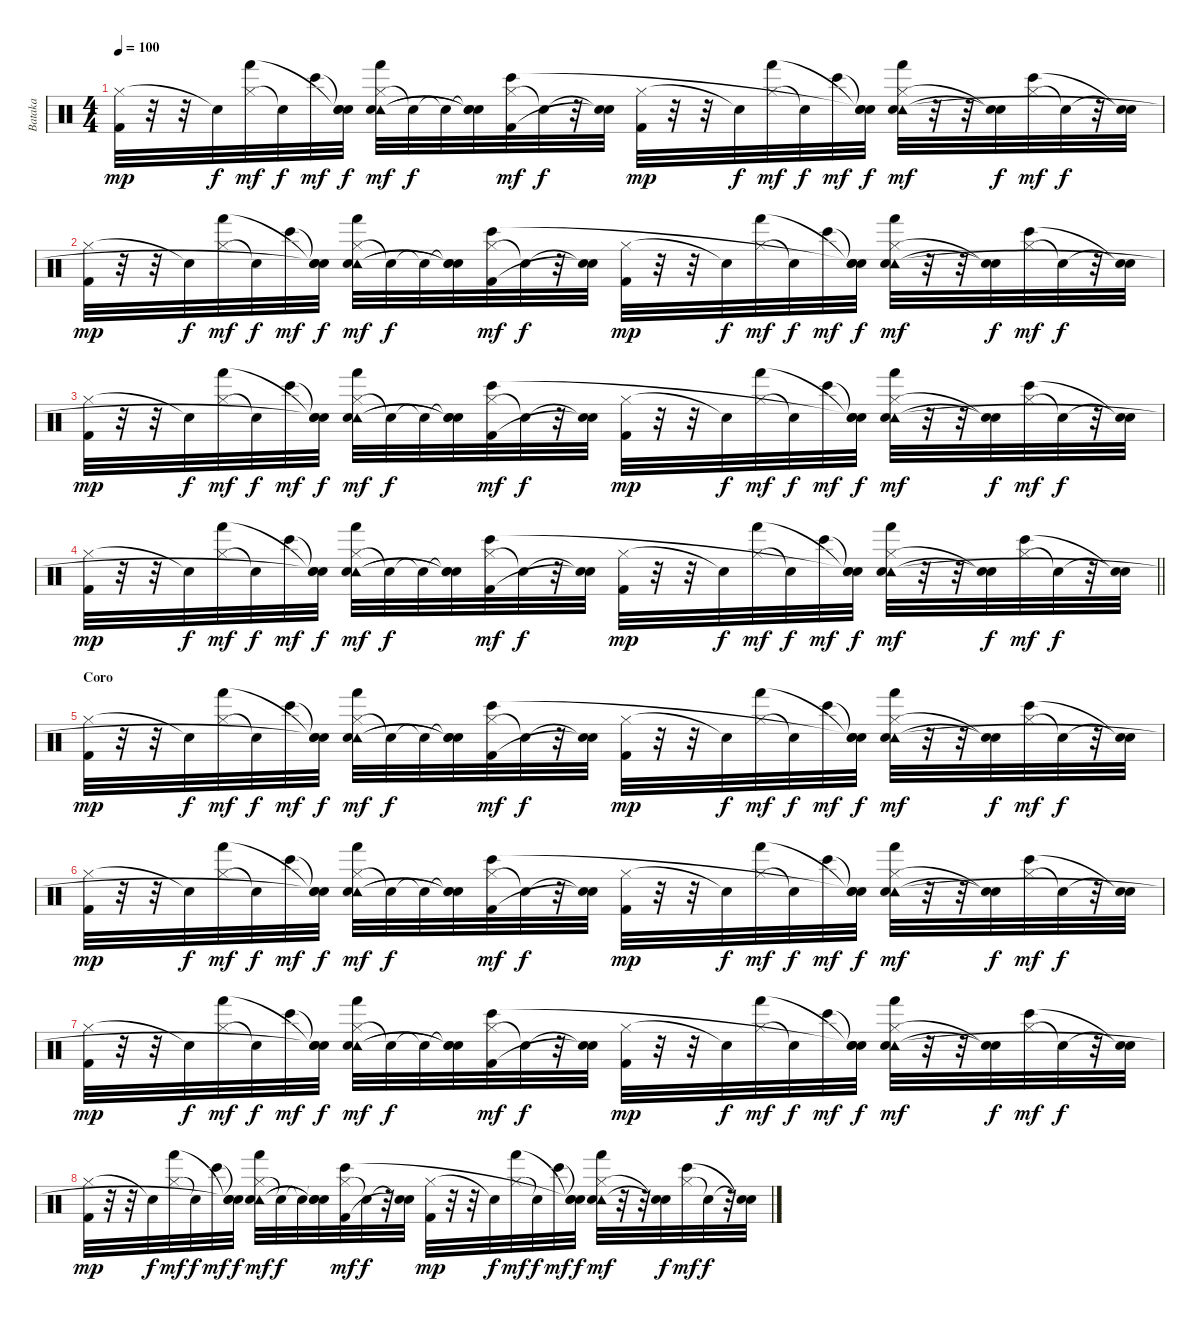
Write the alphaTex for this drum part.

\track ("Bataka" "Bataka") {instrument percussion}
\staff {score}
\articulation defaults
\ts (4 4)
\tempo 100
\clef neutral
\ks c
("Hi-Hat (closed)" "Kick (hit) 2").32{dy mp} r.32 r.32 "Snare (hit)"{t}.32{dy f} ("Hi-Hat (closed)" "Hand (hit)").32{dy mf} "Snare (hit)"{t}.32{dy f} "Bongo High (hit)".32{dy mf} ("Snare (hit)"{t} "Snare (hit)"{t} "Snare (hit)"{t}).32{dy f} ("Hi-Hat (closed)" "Tambourine (hit)" "Electric Snare (hit)" "Hand (hit)").32{dy mf} "Snare (hit)"{t}.32{dy f} "Snare (hit)"{t}.32 ("Snare (hit)"{t} "Snare (hit)"{t} "Snare (hit)"{t}).32 ("Hi-Hat (closed)" "Kick (hit) 2" "Bongo High (hit)").32{dy mf} "Snare (hit)"{t}.32{dy f} r.32 ("Snare (hit)"{t} "Snare (hit)"{t}).32 ("Hi-Hat (closed)" "Kick (hit) 2").32{dy mp} r.32 r.32 "Snare (hit)"{t}.32{dy f} ("Hi-Hat (closed)" "Hand (hit)").32{dy mf} "Snare (hit)"{t}.32{dy f} "Bongo High (hit)".32{dy mf} ("Snare (hit)"{t} "Snare (hit)"{t} "Snare (hit)"{t}).32{dy f} ("Hi-Hat (closed)" "Tambourine (hit)" "Electric Snare (hit)" "Hand (hit)").32{dy mf} r.32 r.32 ("Snare (hit)"{t} "Snare (hit)"{t}).32{dy f} ("Hi-Hat (closed)" "Bongo High (hit)").32{dy mf} "Snare (hit)"{t}.32{dy f} r.32 ("Snare (hit)"{t} "Snare (hit)"{t}).32 |
("Hi-Hat (closed)" "Kick (hit) 2").32{dy mp} r.32 r.32 "Snare (hit)"{t}.32{dy f} ("Hi-Hat (closed)" "Hand (hit)").32{dy mf} "Snare (hit)"{t}.32{dy f} "Bongo High (hit)".32{dy mf} ("Snare (hit)"{t} "Snare (hit)"{t} "Snare (hit)"{t}).32{dy f} ("Hi-Hat (closed)" "Tambourine (hit)" "Electric Snare (hit)" "Hand (hit)").32{dy mf} "Snare (hit)"{t}.32{dy f} "Snare (hit)"{t}.32 ("Snare (hit)"{t} "Snare (hit)"{t} "Snare (hit)"{t}).32 ("Hi-Hat (closed)" "Kick (hit) 2" "Bongo High (hit)").32{dy mf} "Snare (hit)"{t}.32{dy f} r.32 ("Snare (hit)"{t} "Snare (hit)"{t}).32 ("Hi-Hat (closed)" "Kick (hit) 2").32{dy mp} r.32 r.32 "Snare (hit)"{t}.32{dy f} ("Hi-Hat (closed)" "Hand (hit)").32{dy mf} "Snare (hit)"{t}.32{dy f} "Bongo High (hit)".32{dy mf} ("Snare (hit)"{t} "Snare (hit)"{t} "Snare (hit)"{t}).32{dy f} ("Hi-Hat (closed)" "Tambourine (hit)" "Electric Snare (hit)" "Hand (hit)").32{dy mf} r.32 r.32 ("Snare (hit)"{t} "Snare (hit)"{t}).32{dy f} ("Hi-Hat (closed)" "Bongo High (hit)").32{dy mf} "Snare (hit)"{t}.32{dy f} r.32 ("Snare (hit)"{t} "Snare (hit)"{t}).32 |
("Hi-Hat (closed)" "Kick (hit) 2").32{dy mp} r.32 r.32 "Snare (hit)"{t}.32{dy f} ("Hi-Hat (closed)" "Hand (hit)").32{dy mf} "Snare (hit)"{t}.32{dy f} "Bongo High (hit)".32{dy mf} ("Snare (hit)"{t} "Snare (hit)"{t} "Snare (hit)"{t}).32{dy f} ("Hi-Hat (closed)" "Tambourine (hit)" "Electric Snare (hit)" "Hand (hit)").32{dy mf} "Snare (hit)"{t}.32{dy f} "Snare (hit)"{t}.32 ("Snare (hit)"{t} "Snare (hit)"{t} "Snare (hit)"{t}).32 ("Hi-Hat (closed)" "Kick (hit) 2" "Bongo High (hit)").32{dy mf} "Snare (hit)"{t}.32{dy f} r.32 ("Snare (hit)"{t} "Snare (hit)"{t}).32 ("Hi-Hat (closed)" "Kick (hit) 2").32{dy mp} r.32 r.32 "Snare (hit)"{t}.32{dy f} ("Hi-Hat (closed)" "Hand (hit)").32{dy mf} "Snare (hit)"{t}.32{dy f} "Bongo High (hit)".32{dy mf} ("Snare (hit)"{t} "Snare (hit)"{t} "Snare (hit)"{t}).32{dy f} ("Hi-Hat (closed)" "Tambourine (hit)" "Electric Snare (hit)" "Hand (hit)").32{dy mf} r.32 r.32 ("Snare (hit)"{t} "Snare (hit)"{t}).32{dy f} ("Hi-Hat (closed)" "Bongo High (hit)").32{dy mf} "Snare (hit)"{t}.32{dy f} r.32 ("Snare (hit)"{t} "Snare (hit)"{t}).32 |
\barLineRight lightlight
("Hi-Hat (closed)" "Kick (hit) 2").32{dy mp} r.32 r.32 "Snare (hit)"{t}.32{dy f} ("Hi-Hat (closed)" "Hand (hit)").32{dy mf} "Snare (hit)"{t}.32{dy f} "Bongo High (hit)".32{dy mf} ("Snare (hit)"{t} "Snare (hit)"{t} "Snare (hit)"{t}).32{dy f} ("Hi-Hat (closed)" "Tambourine (hit)" "Electric Snare (hit)" "Hand (hit)").32{dy mf} "Snare (hit)"{t}.32{dy f} "Snare (hit)"{t}.32 ("Snare (hit)"{t} "Snare (hit)"{t} "Snare (hit)"{t}).32 ("Hi-Hat (closed)" "Kick (hit) 2" "Bongo High (hit)").32{dy mf} "Snare (hit)"{t}.32{dy f} r.32 ("Snare (hit)"{t} "Snare (hit)"{t}).32 ("Hi-Hat (closed)" "Kick (hit) 2").32{dy mp} r.32 r.32 "Snare (hit)"{t}.32{dy f} ("Hi-Hat (closed)" "Hand (hit)").32{dy mf} "Snare (hit)"{t}.32{dy f} "Bongo High (hit)".32{dy mf} ("Snare (hit)"{t} "Snare (hit)"{t} "Snare (hit)"{t}).32{dy f} ("Hi-Hat (closed)" "Tambourine (hit)" "Electric Snare (hit)" "Hand (hit)").32{dy mf} r.32 r.32 ("Snare (hit)"{t} "Snare (hit)"{t}).32{dy f} ("Hi-Hat (closed)" "Bongo High (hit)").32{dy mf} "Snare (hit)"{t}.32{dy f} r.32 ("Snare (hit)"{t} "Snare (hit)"{t}).32 |
\section ("" "Coro")
("Hi-Hat (closed)" "Kick (hit) 2").32{dy mp} r.32 r.32 "Snare (hit)"{t}.32{dy f} ("Hi-Hat (closed)" "Hand (hit)").32{dy mf} "Snare (hit)"{t}.32{dy f} "Bongo High (hit)".32{dy mf} ("Snare (hit)"{t} "Snare (hit)"{t} "Snare (hit)"{t}).32{dy f} ("Hi-Hat (closed)" "Tambourine (hit)" "Electric Snare (hit)" "Hand (hit)").32{dy mf} "Snare (hit)"{t}.32{dy f} "Snare (hit)"{t}.32 ("Snare (hit)"{t} "Snare (hit)"{t} "Snare (hit)"{t}).32 ("Hi-Hat (closed)" "Kick (hit) 2" "Bongo High (hit)").32{dy mf} "Snare (hit)"{t}.32{dy f} r.32 ("Snare (hit)"{t} "Snare (hit)"{t}).32 ("Hi-Hat (closed)" "Kick (hit) 2").32{dy mp} r.32 r.32 "Snare (hit)"{t}.32{dy f} ("Hi-Hat (closed)" "Hand (hit)").32{dy mf} "Snare (hit)"{t}.32{dy f} "Bongo High (hit)".32{dy mf} ("Snare (hit)"{t} "Snare (hit)"{t} "Snare (hit)"{t}).32{dy f} ("Hi-Hat (closed)" "Tambourine (hit)" "Electric Snare (hit)" "Hand (hit)").32{dy mf} r.32 r.32 ("Snare (hit)"{t} "Snare (hit)"{t}).32{dy f} ("Hi-Hat (closed)" "Bongo High (hit)").32{dy mf} "Snare (hit)"{t}.32{dy f} r.32 ("Snare (hit)"{t} "Snare (hit)"{t}).32 |
("Hi-Hat (closed)" "Kick (hit) 2").32{dy mp} r.32 r.32 "Snare (hit)"{t}.32{dy f} ("Hi-Hat (closed)" "Hand (hit)").32{dy mf} "Snare (hit)"{t}.32{dy f} "Bongo High (hit)".32{dy mf} ("Snare (hit)"{t} "Snare (hit)"{t} "Snare (hit)"{t}).32{dy f} ("Hi-Hat (closed)" "Tambourine (hit)" "Electric Snare (hit)" "Hand (hit)").32{dy mf} "Snare (hit)"{t}.32{dy f} "Snare (hit)"{t}.32 ("Snare (hit)"{t} "Snare (hit)"{t} "Snare (hit)"{t}).32 ("Hi-Hat (closed)" "Kick (hit) 2" "Bongo High (hit)").32{dy mf} "Snare (hit)"{t}.32{dy f} r.32 ("Snare (hit)"{t} "Snare (hit)"{t}).32 ("Hi-Hat (closed)" "Kick (hit) 2").32{dy mp} r.32 r.32 "Snare (hit)"{t}.32{dy f} ("Hi-Hat (closed)" "Hand (hit)").32{dy mf} "Snare (hit)"{t}.32{dy f} "Bongo High (hit)".32{dy mf} ("Snare (hit)"{t} "Snare (hit)"{t} "Snare (hit)"{t}).32{dy f} ("Hi-Hat (closed)" "Tambourine (hit)" "Electric Snare (hit)" "Hand (hit)").32{dy mf} r.32 r.32 ("Snare (hit)"{t} "Snare (hit)"{t}).32{dy f} ("Hi-Hat (closed)" "Bongo High (hit)").32{dy mf} "Snare (hit)"{t}.32{dy f} r.32 ("Snare (hit)"{t} "Snare (hit)"{t}).32 |
("Hi-Hat (closed)" "Kick (hit) 2").32{dy mp} r.32 r.32 "Snare (hit)"{t}.32{dy f} ("Hi-Hat (closed)" "Hand (hit)").32{dy mf} "Snare (hit)"{t}.32{dy f} "Bongo High (hit)".32{dy mf} ("Snare (hit)"{t} "Snare (hit)"{t} "Snare (hit)"{t}).32{dy f} ("Hi-Hat (closed)" "Tambourine (hit)" "Electric Snare (hit)" "Hand (hit)").32{dy mf} "Snare (hit)"{t}.32{dy f} "Snare (hit)"{t}.32 ("Snare (hit)"{t} "Snare (hit)"{t} "Snare (hit)"{t}).32 ("Hi-Hat (closed)" "Kick (hit) 2" "Bongo High (hit)").32{dy mf} "Snare (hit)"{t}.32{dy f} r.32 ("Snare (hit)"{t} "Snare (hit)"{t}).32 ("Hi-Hat (closed)" "Kick (hit) 2").32{dy mp} r.32 r.32 "Snare (hit)"{t}.32{dy f} ("Hi-Hat (closed)" "Hand (hit)").32{dy mf} "Snare (hit)"{t}.32{dy f} "Bongo High (hit)".32{dy mf} ("Snare (hit)"{t} "Snare (hit)"{t} "Snare (hit)"{t}).32{dy f} ("Hi-Hat (closed)" "Tambourine (hit)" "Electric Snare (hit)" "Hand (hit)").32{dy mf} r.32 r.32 ("Snare (hit)"{t} "Snare (hit)"{t}).32{dy f} ("Hi-Hat (closed)" "Bongo High (hit)").32{dy mf} "Snare (hit)"{t}.32{dy f} r.32 ("Snare (hit)"{t} "Snare (hit)"{t}).32 |
("Hi-Hat (closed)" "Kick (hit) 2").32{dy mp} r.32 r.32 "Snare (hit)"{t}.32{dy f} ("Hi-Hat (closed)" "Hand (hit)").32{dy mf} "Snare (hit)"{t}.32{dy f} "Bongo High (hit)".32{dy mf} ("Snare (hit)"{t} "Snare (hit)"{t} "Snare (hit)"{t}).32{dy f} ("Hi-Hat (closed)" "Tambourine (hit)" "Electric Snare (hit)" "Hand (hit)").32{dy mf} "Snare (hit)"{t}.32{dy f} "Snare (hit)"{t}.32 ("Snare (hit)"{t} "Snare (hit)"{t} "Snare (hit)"{t}).32 ("Hi-Hat (closed)" "Kick (hit) 2" "Bongo High (hit)").32{dy mf} "Snare (hit)"{t}.32{dy f} r.32 ("Snare (hit)"{t} "Snare (hit)"{t}).32 ("Hi-Hat (closed)" "Kick (hit) 2").32{dy mp} r.32 r.32 "Snare (hit)"{t}.32{dy f} ("Hi-Hat (closed)" "Hand (hit)").32{dy mf} "Snare (hit)"{t}.32{dy f} "Bongo High (hit)".32{dy mf} ("Snare (hit)"{t} "Snare (hit)"{t} "Snare (hit)"{t}).32{dy f} ("Hi-Hat (closed)" "Tambourine (hit)" "Electric Snare (hit)" "Hand (hit)").32{dy mf} r.32 r.32 ("Snare (hit)"{t} "Snare (hit)"{t}).32{dy f} ("Hi-Hat (closed)" "Bongo High (hit)").32{dy mf} "Snare (hit)"{t}.32{dy f} r.32 ("Snare (hit)"{t} "Snare (hit)"{t}).32
